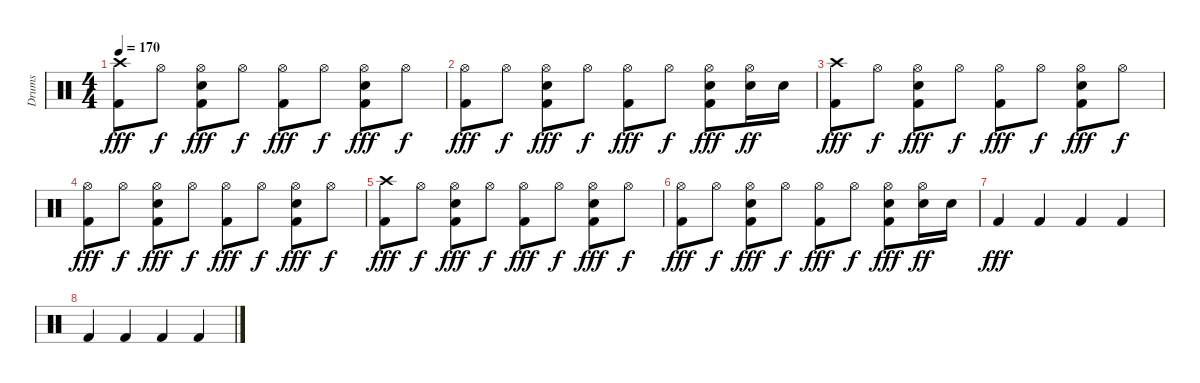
\track ("Drums" "Drums") {instrument percussion}
\staff {score}
\articulation defaults
\ts (4 4)
\tempo 170
\clef neutral
\ks c
("Crash high (hit)" "Kick (hit) 2").8{dy fff} "Hi-Hat (open)".8{dy f} ("Hi-Hat (open)" "Snare (hit) 2" "Kick (hit) 2").8{dy fff} "Hi-Hat (open)".8{dy f} ("Hi-Hat (open)" "Kick (hit) 2").8{dy fff} "Hi-Hat (open)".8{dy f} ("Hi-Hat (open)" "Snare (hit) 2" "Kick (hit) 2").8{dy fff} "Hi-Hat (open)".8{dy f} |
("Hi-Hat (open)" "Kick (hit) 2").8{dy fff} "Hi-Hat (open)".8{dy f} ("Hi-Hat (open)" "Snare (hit) 2" "Kick (hit) 2").8{dy fff} "Hi-Hat (open)".8{dy f} ("Hi-Hat (open)" "Kick (hit) 2").8{dy fff} "Hi-Hat (open)".8{dy f} ("Hi-Hat (open)" "Snare (hit) 2" "Kick (hit) 2").8{dy fff} ("Hi-Hat (open)" "Snare (hit) 2").16{dy ff} "Snare (hit) 2".16 |
("Crash high (hit)" "Kick (hit) 2").8{dy fff} "Hi-Hat (open)".8{dy f} ("Hi-Hat (open)" "Snare (hit) 2" "Kick (hit) 2").8{dy fff} "Hi-Hat (open)".8{dy f} ("Hi-Hat (open)" "Kick (hit) 2").8{dy fff} "Hi-Hat (open)".8{dy f} ("Hi-Hat (open)" "Snare (hit) 2" "Kick (hit) 2").8{dy fff} "Hi-Hat (open)".8{dy f} |
("Hi-Hat (open)" "Kick (hit) 2").8{dy fff} "Hi-Hat (open)".8{dy f} ("Hi-Hat (open)" "Snare (hit) 2" "Kick (hit) 2").8{dy fff} "Hi-Hat (open)".8{dy f} ("Hi-Hat (open)" "Kick (hit) 2").8{dy fff} "Hi-Hat (open)".8{dy f} ("Hi-Hat (open)" "Snare (hit) 2" "Kick (hit) 2").8{dy fff} "Hi-Hat (open)".8{dy f} |
("Crash high (hit)" "Kick (hit) 2").8{dy fff} "Hi-Hat (open)".8{dy f} ("Hi-Hat (open)" "Snare (hit) 2" "Kick (hit) 2").8{dy fff} "Hi-Hat (open)".8{dy f} ("Hi-Hat (open)" "Kick (hit) 2").8{dy fff} "Hi-Hat (open)".8{dy f} ("Hi-Hat (open)" "Snare (hit) 2" "Kick (hit) 2").8{dy fff} "Hi-Hat (open)".8{dy f} |
("Hi-Hat (open)" "Kick (hit) 2").8{dy fff} "Hi-Hat (open)".8{dy f} ("Hi-Hat (open)" "Snare (hit) 2" "Kick (hit) 2").8{dy fff} "Hi-Hat (open)".8{dy f} ("Hi-Hat (open)" "Kick (hit) 2").8{dy fff} "Hi-Hat (open)".8{dy f} ("Hi-Hat (open)" "Snare (hit) 2" "Kick (hit) 2").8{dy fff} ("Hi-Hat (open)" "Snare (hit) 2").16{dy ff} "Snare (hit) 2".16 |
"Kick (hit) 2".4{dy fff} "Kick (hit) 2".4 "Kick (hit) 2".4 "Kick (hit) 2".4 |
"Kick (hit) 2".4 "Kick (hit) 2".4 "Kick (hit) 2".4 "Kick (hit) 2".4
